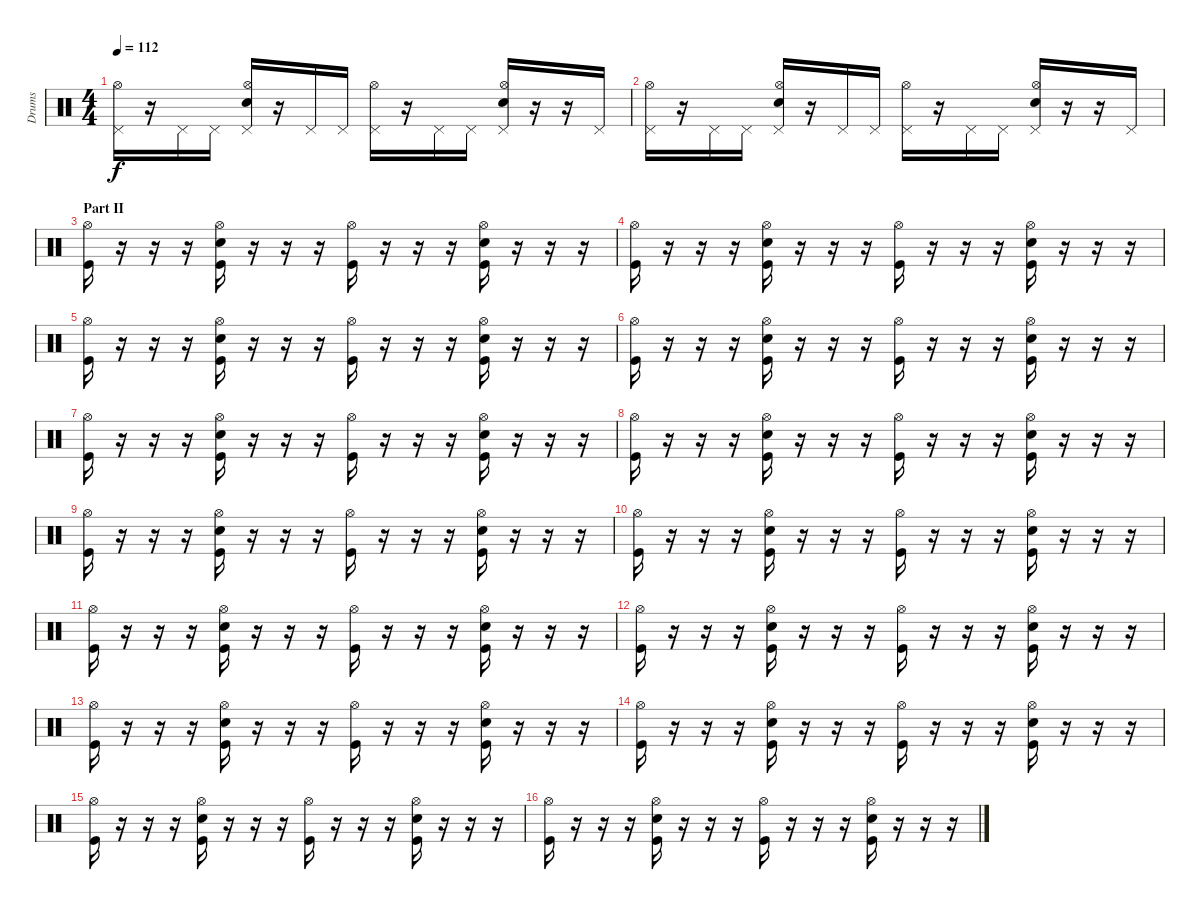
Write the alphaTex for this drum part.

\track ("Drums" "Drums") {instrument percussion}
\staff {score}
\articulation defaults
\ts (4 4)
\tempo 112
\clef neutral
\ks c
("Pedal Hi-Hat (hit)" "Hi-Hat (open)").16{dy f} r.16 "Pedal Hi-Hat (hit)".16 "Pedal Hi-Hat (hit)".16 ("Pedal Hi-Hat (hit)" "Hi-Hat (open)" "Electric Snare (hit)").16 r.16 "Pedal Hi-Hat (hit)".16 "Pedal Hi-Hat (hit)".16 ("Pedal Hi-Hat (hit)" "Hi-Hat (open)").16 r.16 "Pedal Hi-Hat (hit)".16 "Pedal Hi-Hat (hit)".16 ("Pedal Hi-Hat (hit)" "Hi-Hat (open)" "Electric Snare (hit)").16 r.16 r.16 "Pedal Hi-Hat (hit)".16 |
("Pedal Hi-Hat (hit)" "Hi-Hat (open)").16 r.16 "Pedal Hi-Hat (hit)".16 "Pedal Hi-Hat (hit)".16 ("Pedal Hi-Hat (hit)" "Hi-Hat (open)" "Electric Snare (hit)").16 r.16 "Pedal Hi-Hat (hit)".16 "Pedal Hi-Hat (hit)".16 ("Pedal Hi-Hat (hit)" "Hi-Hat (open)").16 r.16 "Pedal Hi-Hat (hit)".16 "Pedal Hi-Hat (hit)".16 ("Pedal Hi-Hat (hit)" "Hi-Hat (open)" "Electric Snare (hit)").16 r.16 r.16 "Pedal Hi-Hat (hit)".16 |
\section ("" "Part II")
("Hi-Hat (open)" "Kick (hit)").16 r.16 r.16 r.16 ("Hi-Hat (open)" "Electric Snare (hit)" "Kick (hit)").16 r.16 r.16 r.16 ("Hi-Hat (open)" "Kick (hit)").16 r.16 r.16 r.16 ("Hi-Hat (open)" "Electric Snare (hit)" "Kick (hit)").16 r.16 r.16 r.16 |
("Hi-Hat (open)" "Kick (hit)").16 r.16 r.16 r.16 ("Hi-Hat (open)" "Electric Snare (hit)" "Kick (hit)").16 r.16 r.16 r.16 ("Hi-Hat (open)" "Kick (hit)").16 r.16 r.16 r.16 ("Hi-Hat (open)" "Electric Snare (hit)" "Kick (hit)").16 r.16 r.16 r.16 |
("Hi-Hat (open)" "Kick (hit)").16 r.16 r.16 r.16 ("Hi-Hat (open)" "Electric Snare (hit)" "Kick (hit)").16 r.16 r.16 r.16 ("Hi-Hat (open)" "Kick (hit)").16 r.16 r.16 r.16 ("Hi-Hat (open)" "Electric Snare (hit)" "Kick (hit)").16 r.16 r.16 r.16 |
("Hi-Hat (open)" "Kick (hit)").16 r.16 r.16 r.16 ("Hi-Hat (open)" "Electric Snare (hit)" "Kick (hit)").16 r.16 r.16 r.16 ("Hi-Hat (open)" "Kick (hit)").16 r.16 r.16 r.16 ("Hi-Hat (open)" "Electric Snare (hit)" "Kick (hit)").16 r.16 r.16 r.16 |
("Hi-Hat (open)" "Kick (hit)").16 r.16 r.16 r.16 ("Hi-Hat (open)" "Electric Snare (hit)" "Kick (hit)").16 r.16 r.16 r.16 ("Hi-Hat (open)" "Kick (hit)").16 r.16 r.16 r.16 ("Hi-Hat (open)" "Electric Snare (hit)" "Kick (hit)").16 r.16 r.16 r.16 |
("Hi-Hat (open)" "Kick (hit)").16 r.16 r.16 r.16 ("Hi-Hat (open)" "Electric Snare (hit)" "Kick (hit)").16 r.16 r.16 r.16 ("Hi-Hat (open)" "Kick (hit)").16 r.16 r.16 r.16 ("Hi-Hat (open)" "Electric Snare (hit)" "Kick (hit)").16 r.16 r.16 r.16 |
("Hi-Hat (open)" "Kick (hit)").16 r.16 r.16 r.16 ("Hi-Hat (open)" "Electric Snare (hit)" "Kick (hit)").16 r.16 r.16 r.16 ("Hi-Hat (open)" "Kick (hit)").16 r.16 r.16 r.16 ("Hi-Hat (open)" "Electric Snare (hit)" "Kick (hit)").16 r.16 r.16 r.16 |
("Hi-Hat (open)" "Kick (hit)").16 r.16 r.16 r.16 ("Hi-Hat (open)" "Electric Snare (hit)" "Kick (hit)").16 r.16 r.16 r.16 ("Hi-Hat (open)" "Kick (hit)").16 r.16 r.16 r.16 ("Hi-Hat (open)" "Electric Snare (hit)" "Kick (hit)").16 r.16 r.16 r.16 |
("Hi-Hat (open)" "Kick (hit)").16 r.16 r.16 r.16 ("Hi-Hat (open)" "Electric Snare (hit)" "Kick (hit)").16 r.16 r.16 r.16 ("Hi-Hat (open)" "Kick (hit)").16 r.16 r.16 r.16 ("Hi-Hat (open)" "Electric Snare (hit)" "Kick (hit)").16 r.16 r.16 r.16 |
("Hi-Hat (open)" "Kick (hit)").16 r.16 r.16 r.16 ("Hi-Hat (open)" "Electric Snare (hit)" "Kick (hit)").16 r.16 r.16 r.16 ("Hi-Hat (open)" "Kick (hit)").16 r.16 r.16 r.16 ("Hi-Hat (open)" "Electric Snare (hit)" "Kick (hit)").16 r.16 r.16 r.16 |
("Hi-Hat (open)" "Kick (hit)").16 r.16 r.16 r.16 ("Hi-Hat (open)" "Electric Snare (hit)" "Kick (hit)").16 r.16 r.16 r.16 ("Hi-Hat (open)" "Kick (hit)").16 r.16 r.16 r.16 ("Hi-Hat (open)" "Electric Snare (hit)" "Kick (hit)").16 r.16 r.16 r.16 |
("Hi-Hat (open)" "Kick (hit)").16 r.16 r.16 r.16 ("Hi-Hat (open)" "Electric Snare (hit)" "Kick (hit)").16 r.16 r.16 r.16 ("Hi-Hat (open)" "Kick (hit)").16 r.16 r.16 r.16 ("Hi-Hat (open)" "Electric Snare (hit)" "Kick (hit)").16 r.16 r.16 r.16 |
("Hi-Hat (open)" "Kick (hit)").16 r.16 r.16 r.16 ("Hi-Hat (open)" "Electric Snare (hit)" "Kick (hit)").16 r.16 r.16 r.16 ("Hi-Hat (open)" "Kick (hit)").16 r.16 r.16 r.16 ("Hi-Hat (open)" "Electric Snare (hit)" "Kick (hit)").16 r.16 r.16 r.16 |
("Hi-Hat (open)" "Kick (hit)").16 r.16 r.16 r.16 ("Hi-Hat (open)" "Electric Snare (hit)" "Kick (hit)").16 r.16 r.16 r.16 ("Hi-Hat (open)" "Kick (hit)").16 r.16 r.16 r.16 ("Hi-Hat (open)" "Electric Snare (hit)" "Kick (hit)").16 r.16 r.16 r.16
